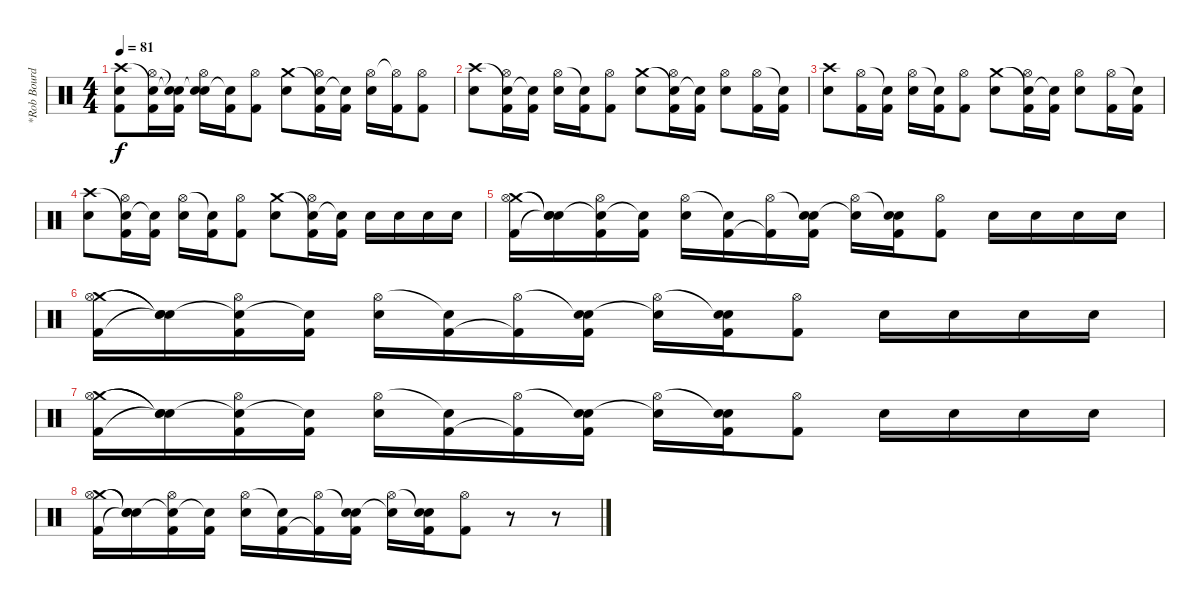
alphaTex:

\track ("*Rob Bourdon (Drums)" "*Rob Bourd") {instrument percussion}
\staff {score}
\articulation defaults
\ts (4 4)
\tempo 81
\clef neutral
\ks c
("Crash high (hit)" "Electric Snare (hit)" "Kick (hit) 2").8{dy f} ("Snare (hit)"{t} "Hi-Hat (open)" "Kick (hit) 2").16 ("Snare (hit)"{t} "Snare (hit)"{t} "Kick (hit) 2").16 ("Snare (hit)"{t} "Hi-Hat (open)" "Electric Snare (hit)").16 ("Snare (hit)"{t} "Kick (hit) 2").16 ("Hi-Hat (open)" "Kick (hit) 2").8 ("Crash medium (hit)" "Electric Snare (hit)").8 ("Snare (hit)"{t} "Hi-Hat (open)" "Kick (hit) 2").16 ("Snare (hit)"{t} "Kick (hit) 2").16 ("Hi-Hat (open)" "Electric Snare (hit)").16 ("Hi-Hat (open)"{t} "Kick (hit) 2").16 ("Hi-Hat (open)" "Kick (hit) 2").8 |
("Crash high (hit)" "Electric Snare (hit)").8 ("Snare (hit)"{t} "Hi-Hat (open)" "Kick (hit) 2").16 ("Snare (hit)"{t} "Kick (hit) 2").16 ("Hi-Hat (open)" "Electric Snare (hit)").16 ("Snare (hit)"{t} "Kick (hit) 2").16 ("Hi-Hat (open)" "Kick (hit) 2").8 ("Crash medium (hit)" "Electric Snare (hit)").8 ("Snare (hit)"{t} "Hi-Hat (open)" "Kick (hit) 2").16 ("Snare (hit)"{t} "Kick (hit) 2").16 ("Hi-Hat (open)" "Electric Snare (hit)").8 ("Hi-Hat (open)" "Kick (hit) 2").16 ("Snare (hit)"{t} "Kick (hit) 2").16 |
("Crash high (hit)" "Electric Snare (hit)").8 ("Hi-Hat (open)" "Kick (hit) 2").16 ("Snare (hit)"{t} "Kick (hit) 2").16 ("Hi-Hat (open)" "Electric Snare (hit)").16 ("Snare (hit)"{t} "Kick (hit) 2").16 ("Hi-Hat (open)" "Kick (hit) 2").8 ("Crash medium (hit)" "Electric Snare (hit)").8 ("Snare (hit)"{t} "Hi-Hat (open)" "Kick (hit) 2").16 ("Snare (hit)"{t} "Kick (hit) 2").16 ("Hi-Hat (open)" "Electric Snare (hit)").8 ("Hi-Hat (open)" "Kick (hit) 2").16 ("Snare (hit)"{t} "Kick (hit) 2").16 |
("Crash high (hit)" "Electric Snare (hit)").8 ("Snare (hit)"{t} "Hi-Hat (open)" "Kick (hit) 2").16 ("Snare (hit)"{t} "Kick (hit) 2").16 ("Hi-Hat (open)" "Electric Snare (hit)").16 ("Snare (hit)"{t} "Kick (hit) 2").16 ("Hi-Hat (open)" "Kick (hit) 2").8 ("Crash medium (hit)" "Electric Snare (hit)").8 ("Snare (hit)"{t} "Hi-Hat (open)" "Kick (hit) 2").16 ("Snare (hit)"{t} "Kick (hit) 2").16 "Electric Snare (hit)".16 "Electric Snare (hit)".16 "Electric Snare (hit)".16 "Electric Snare (hit)".16 |
("Crash medium (hit)" "Hi-Hat (open)" "Kick (hit) 2").16 ("Snare (hit)"{t} "Snare (hit)"{t} "Snare (hit)"{t}).16 ("Snare (hit)"{t} "Hi-Hat (open)" "Kick (hit) 2").16 ("Snare (hit)"{t} "Kick (hit) 2").16 ("Hi-Hat (open)" "Electric Snare (hit)").16 ("Snare (hit)"{t} "Kick (hit) 2").16 ("Hi-Hat (open)" "Kick (hit) 2"{t}).16 ("Snare (hit)"{t} "Electric Snare (hit)" "Kick (hit) 2").16 ("Hi-Hat (open)" "Snare (hit)"{t}).16 ("Snare (hit)"{t} "Electric Snare (hit)" "Kick (hit) 2").16 ("Hi-Hat (open)" "Kick (hit) 2").8 "Electric Snare (hit)".16 "Electric Snare (hit)".16 "Electric Snare (hit)".16 "Electric Snare (hit)".16 |
("Crash medium (hit)" "Hi-Hat (open)" "Kick (hit) 2").16 ("Snare (hit)"{t} "Snare (hit)"{t} "Snare (hit)"{t}).16 ("Snare (hit)"{t} "Hi-Hat (open)" "Kick (hit) 2").16 ("Snare (hit)"{t} "Kick (hit) 2").16 ("Hi-Hat (open)" "Electric Snare (hit)").16 ("Snare (hit)"{t} "Kick (hit) 2").16 ("Hi-Hat (open)" "Kick (hit) 2"{t}).16 ("Snare (hit)"{t} "Electric Snare (hit)" "Kick (hit) 2").16 ("Hi-Hat (open)" "Snare (hit)"{t}).16 ("Snare (hit)"{t} "Electric Snare (hit)" "Kick (hit) 2").16 ("Hi-Hat (open)" "Kick (hit) 2").8 "Electric Snare (hit)".16 "Electric Snare (hit)".16 "Electric Snare (hit)".16 "Electric Snare (hit)".16 |
("Crash medium (hit)" "Hi-Hat (open)" "Kick (hit) 2").16 ("Snare (hit)"{t} "Snare (hit)"{t} "Snare (hit)"{t}).16 ("Snare (hit)"{t} "Hi-Hat (open)" "Kick (hit) 2").16 ("Snare (hit)"{t} "Kick (hit) 2").16 ("Hi-Hat (open)" "Electric Snare (hit)").16 ("Snare (hit)"{t} "Kick (hit) 2").16 ("Hi-Hat (open)" "Kick (hit) 2"{t}).16 ("Snare (hit)"{t} "Electric Snare (hit)" "Kick (hit) 2").16 ("Hi-Hat (open)" "Snare (hit)"{t}).16 ("Snare (hit)"{t} "Electric Snare (hit)" "Kick (hit) 2").16 ("Hi-Hat (open)" "Kick (hit) 2").8 "Electric Snare (hit)".16 "Electric Snare (hit)".16 "Electric Snare (hit)".16 "Electric Snare (hit)".16 |
("Crash medium (hit)" "Hi-Hat (open)" "Kick (hit) 2").16 ("Snare (hit)"{t} "Snare (hit)"{t} "Snare (hit)"{t}).16 ("Snare (hit)"{t} "Hi-Hat (open)" "Kick (hit) 2").16 ("Snare (hit)"{t} "Kick (hit) 2").16 ("Hi-Hat (open)" "Electric Snare (hit)").16 ("Snare (hit)"{t} "Kick (hit) 2").16 ("Hi-Hat (open)" "Kick (hit) 2"{t}).16 ("Snare (hit)"{t} "Electric Snare (hit)" "Kick (hit) 2").16 ("Hi-Hat (open)" "Snare (hit)"{t}).16 ("Snare (hit)"{t} "Electric Snare (hit)" "Kick (hit) 2").16 ("Hi-Hat (open)" "Kick (hit) 2").8 r.8 r.8
